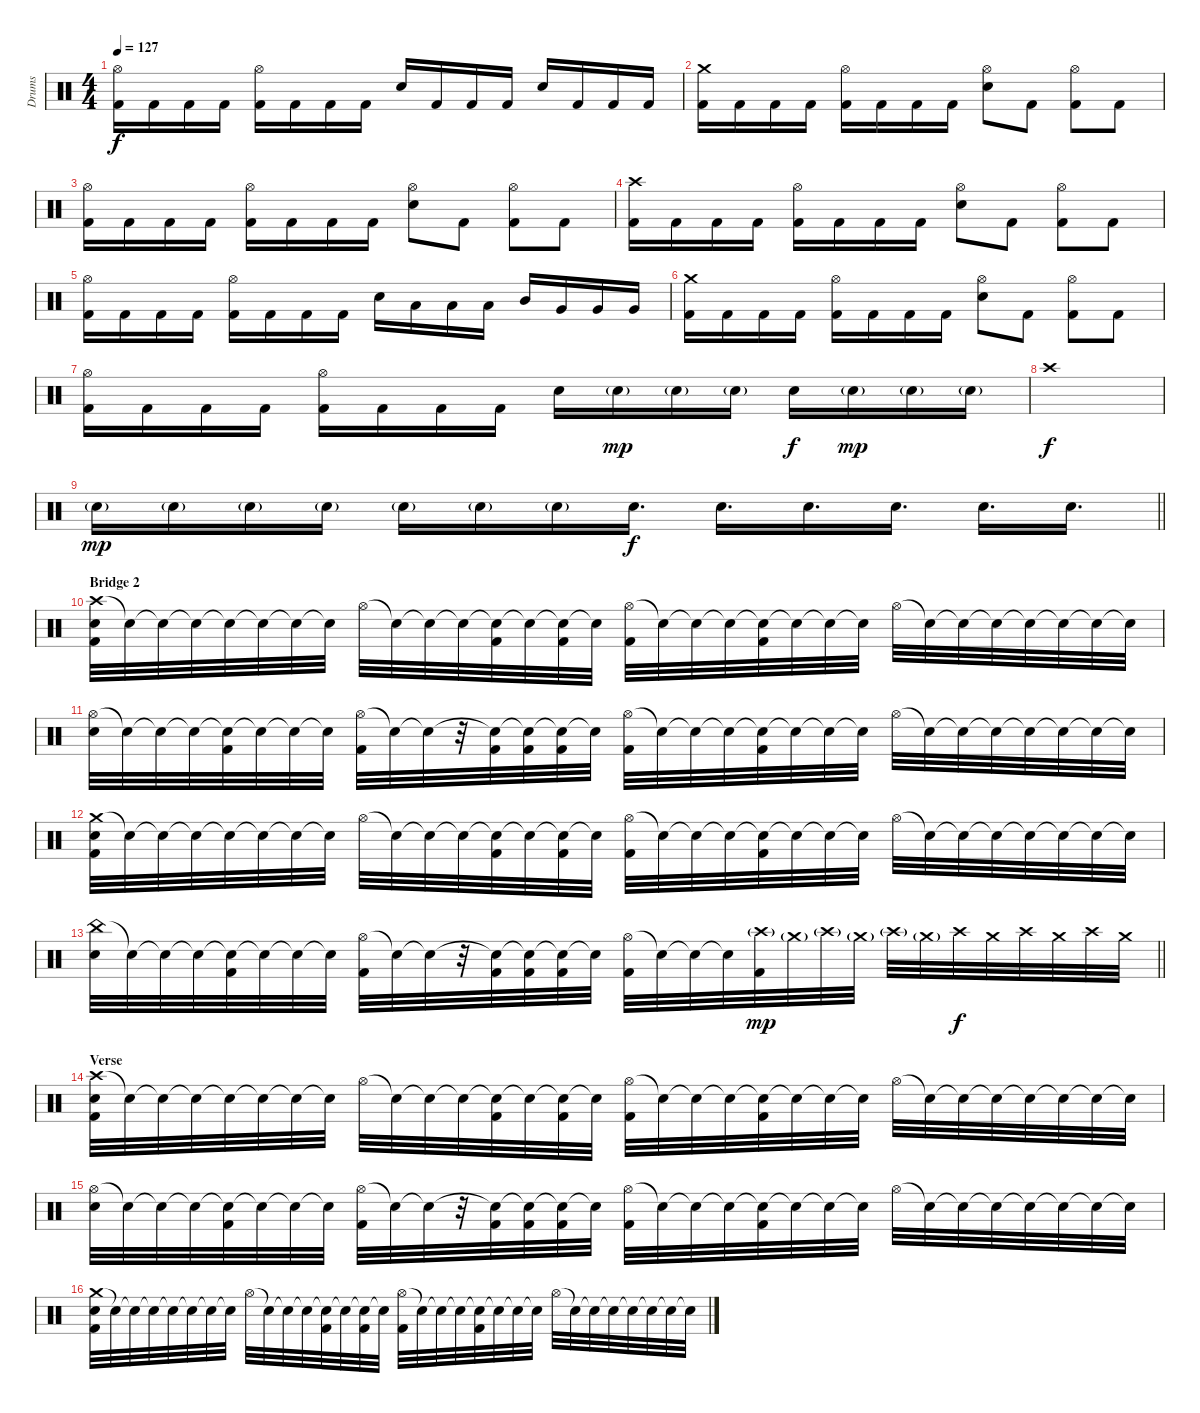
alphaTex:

\track ("Drums" "Drums") {instrument percussion}
\staff {score}
\articulation defaults
\ts (4 4)
\tempo 127
\clef neutral
\ks c
("Hi-Hat (open)" "Kick (hit) 2").16{dy f} "Kick (hit) 2".16 "Kick (hit) 2".16 "Kick (hit) 2".16 ("Hi-Hat (open)" "Kick (hit) 2").16 "Kick (hit) 2".16 "Kick (hit) 2".16 "Kick (hit) 2".16 "Snare (hit) 2".16 "Kick (hit) 2".16 "Kick (hit) 2".16 "Kick (hit) 2".16 "Snare (hit) 2".16 "Kick (hit) 2".16 "Kick (hit) 2".16 "Kick (hit) 2".16 |
("Crash medium (hit)" "Kick (hit) 2").16 "Kick (hit) 2".16 "Kick (hit) 2".16 "Kick (hit) 2".16 ("Hi-Hat (open)" "Kick (hit) 2").16 "Kick (hit) 2".16 "Kick (hit) 2".16 "Kick (hit) 2".16 ("Hi-Hat (open)" "Snare (hit) 2").8 "Kick (hit) 2".8 ("Hi-Hat (open)" "Kick (hit) 2").8 "Kick (hit) 2".8 |
("Hi-Hat (open)" "Kick (hit) 2").16 "Kick (hit) 2".16 "Kick (hit) 2".16 "Kick (hit) 2".16 ("Hi-Hat (open)" "Kick (hit) 2").16 "Kick (hit) 2".16 "Kick (hit) 2".16 "Kick (hit) 2".16 ("Hi-Hat (open)" "Snare (hit) 2").8 "Kick (hit) 2".8 ("Hi-Hat (open)" "Kick (hit) 2").8 "Kick (hit) 2".8 |
("Crash high (hit)" "Kick (hit) 2").16 "Kick (hit) 2".16 "Kick (hit) 2".16 "Kick (hit) 2".16 ("Hi-Hat (open)" "Kick (hit) 2").16 "Kick (hit) 2".16 "Kick (hit) 2".16 "Kick (hit) 2".16 ("Hi-Hat (open)" "Snare (hit) 2").8 "Kick (hit) 2".8 ("Hi-Hat (open)" "Kick (hit) 2").8 "Kick (hit) 2".8 |
("Hi-Hat (open)" "Kick (hit) 2").16 "Kick (hit) 2".16 "Kick (hit) 2".16 "Kick (hit) 2".16 ("Hi-Hat (open)" "Kick (hit) 2").16 "Kick (hit) 2".16 "Kick (hit) 2".16 "Kick (hit) 2".16 "Snare (hit) 2".16 "Low Tom (hit)".16 "Low Tom (hit)".16 "Low Tom (hit)".16 "Mid Tom (hit)".16 "Very Low Tom (hit)".16 "Very Low Tom (hit)".16 "Very Low Tom (hit)".16 |
("Crash medium (hit)" "Kick (hit) 2").16 "Kick (hit) 2".16 "Kick (hit) 2".16 "Kick (hit) 2".16 ("Hi-Hat (open)" "Kick (hit) 2").16 "Kick (hit) 2".16 "Kick (hit) 2".16 "Kick (hit) 2".16 ("Hi-Hat (open)" "Snare (hit) 2").8 "Kick (hit) 2".8 ("Hi-Hat (open)" "Kick (hit) 2").8 "Kick (hit) 2".8 |
("Hi-Hat (open)" "Kick (hit) 2").16 "Kick (hit) 2".16 "Kick (hit) 2".16 "Kick (hit) 2".16 ("Hi-Hat (open)" "Kick (hit) 2").16 "Kick (hit) 2".16 "Kick (hit) 2".16 "Kick (hit) 2".16 "Snare (hit) 2".16 "Snare (hit) 2"{g}.16{dy mp} "Snare (hit) 2"{g}.16 "Snare (hit) 2"{g}.16 "Snare (hit) 2".16{dy f} "Snare (hit) 2"{g}.16{dy mp} "Snare (hit) 2"{g}.16 "Snare (hit) 2"{g}.16 |
"Crash high (hit)".1{dy f} |
\barLineRight lightlight "Snare (hit) 2"{g}.16{dy mp} "Snare (hit) 2"{g}.16 "Snare (hit) 2"{g}.16 "Snare (hit) 2"{g}.16 "Snare (hit) 2"{g}.16 "Snare (hit) 2"{g}.16 "Snare (hit) 2"{g}.16 "Snare (hit) 2".16{d dy f} "Snare (hit) 2".16{d} "Snare (hit) 2".16{d} "Snare (hit) 2".16{d} "Snare (hit) 2".16{d} "Snare (hit) 2".16{d}
|
\section ("" "Bridge 2")
("Crash high (hit)" "Snare (hit) 2" "Kick (hit) 2").32 "Snare (hit)"{t}.32 "Snare (hit)"{t}.32 "Snare (hit)"{t}.32 "Snare (hit)"{t}.32 "Snare (hit)"{t}.32 "Snare (hit)"{t}.32 "Snare (hit)"{t}.32 "Hi-Hat (open)".32 "Snare (hit)"{t}.32 "Snare (hit)"{t}.32 "Snare (hit)"{t}.32 ("Snare (hit)"{t} "Kick (hit) 2").32 "Snare (hit)"{t}.32 ("Snare (hit)"{t} "Kick (hit) 2").32 "Snare (hit)"{t}.32 ("Hi-Hat (open)" "Kick (hit) 2").32 "Snare (hit)"{t}.32 "Snare (hit)"{t}.32 "Snare (hit)"{t}.32 ("Snare (hit)"{t} "Kick (hit) 2").32 "Snare (hit)"{t}.32 "Snare (hit)"{t}.32 "Snare (hit)"{t}.32 "Hi-Hat (open)".32 "Snare (hit)"{t}.32 "Snare (hit)"{t}.32 "Snare (hit)"{t}.32 "Snare (hit)"{t}.32 "Snare (hit)"{t}.32 "Snare (hit)"{t}.32 "Snare (hit)"{t}.32 |
("Hi-Hat (open)" "Snare (hit) 2").32 "Snare (hit)"{t}.32 "Snare (hit)"{t}.32 "Snare (hit)"{t}.32 ("Snare (hit)"{t} "Kick (hit) 2").32 "Snare (hit)"{t}.32 "Snare (hit)"{t}.32 "Snare (hit)"{t}.32 ("Hi-Hat (open)" "Kick (hit) 2").32 "Snare (hit)"{t}.32 "Snare (hit)"{t}.32 r.32 ("Snare (hit)"{t} "Kick (hit) 2").32 ("Snare (hit)"{t} "Kick (hit) 2").32 ("Snare (hit)"{t} "Kick (hit) 2").32 "Snare (hit)"{t}.32 ("Hi-Hat (open)" "Kick (hit) 2").32 "Snare (hit)"{t}.32 "Snare (hit)"{t}.32 "Snare (hit)"{t}.32 ("Snare (hit)"{t} "Kick (hit) 2").32 "Snare (hit)"{t}.32 "Snare (hit)"{t}.32 "Snare (hit)"{t}.32 "Hi-Hat (open)".32 "Snare (hit)"{t}.32 "Snare (hit)"{t}.32 "Snare (hit)"{t}.32 "Snare (hit)"{t}.32 "Snare (hit)"{t}.32 "Snare (hit)"{t}.32 "Snare (hit)"{t}.32 |
("Crash medium (hit)" "Snare (hit) 2" "Kick (hit) 2").32 "Snare (hit)"{t}.32 "Snare (hit)"{t}.32 "Snare (hit)"{t}.32 "Snare (hit)"{t}.32 "Snare (hit)"{t}.32 "Snare (hit)"{t}.32 "Snare (hit)"{t}.32 "Hi-Hat (open)".32 "Snare (hit)"{t}.32 "Snare (hit)"{t}.32 "Snare (hit)"{t}.32 ("Snare (hit)"{t} "Kick (hit) 2").32 "Snare (hit)"{t}.32 ("Snare (hit)"{t} "Kick (hit) 2").32 "Snare (hit)"{t}.32 ("Hi-Hat (open)" "Kick (hit) 2").32 "Snare (hit)"{t}.32 "Snare (hit)"{t}.32 "Snare (hit)"{t}.32 ("Snare (hit)"{t} "Kick (hit) 2").32 "Snare (hit)"{t}.32 "Snare (hit)"{t}.32 "Snare (hit)"{t}.32 "Hi-Hat (open)".32 "Snare (hit)"{t}.32 "Snare (hit)"{t}.32 "Snare (hit)"{t}.32 "Snare (hit)"{t}.32 "Snare (hit)"{t}.32 "Snare (hit)"{t}.32 "Snare (hit)"{t}.32 |
\barLineRight lightlight
("China (hit)" "Snare (hit) 2").32 "Snare (hit)"{t}.32 "Snare (hit)"{t}.32 "Snare (hit)"{t}.32 ("Snare (hit)"{t} "Kick (hit) 2").32 "Snare (hit)"{t}.32 "Snare (hit)"{t}.32 "Snare (hit)"{t}.32 ("Hi-Hat (open)" "Kick (hit) 2").32 "Snare (hit)"{t}.32 "Snare (hit)"{t}.32 r.32 ("Snare (hit)"{t} "Kick (hit) 2").32 ("Snare (hit)"{t} "Kick (hit) 2").32 ("Snare (hit)"{t} "Kick (hit) 2").32 "Snare (hit)"{t}.32 ("Hi-Hat (open)" "Kick (hit) 2").32 "Snare (hit)"{t}.32 "Snare (hit)"{t}.32 "Snare (hit)"{t}.32 ("Crash high (hit)"{g} "Kick (hit) 2").32{dy mp} "Crash medium (hit)"{g}.32 "Crash high (hit)"{g}.32 "Crash medium (hit)"{g}.32 "Crash high (hit)"{g}.32 "Crash medium (hit)"{g}.32 "Crash high (hit)".32{dy f} "Crash medium (hit)".32 "Crash high (hit)".32 "Crash medium (hit)".32 "Crash high (hit)".32 "Crash medium (hit)".32 |
\section ("" "Verse")
("Crash high (hit)" "Snare (hit) 2" "Kick (hit) 2").32 "Snare (hit)"{t}.32 "Snare (hit)"{t}.32 "Snare (hit)"{t}.32 "Snare (hit)"{t}.32 "Snare (hit)"{t}.32 "Snare (hit)"{t}.32 "Snare (hit)"{t}.32 "Hi-Hat (open)".32 "Snare (hit)"{t}.32 "Snare (hit)"{t}.32 "Snare (hit)"{t}.32 ("Snare (hit)"{t} "Kick (hit) 2").32 "Snare (hit)"{t}.32 ("Snare (hit)"{t} "Kick (hit) 2").32 "Snare (hit)"{t}.32 ("Hi-Hat (open)" "Kick (hit) 2").32 "Snare (hit)"{t}.32 "Snare (hit)"{t}.32 "Snare (hit)"{t}.32 ("Snare (hit)"{t} "Kick (hit) 2").32 "Snare (hit)"{t}.32 "Snare (hit)"{t}.32 "Snare (hit)"{t}.32 "Hi-Hat (open)".32 "Snare (hit)"{t}.32 "Snare (hit)"{t}.32 "Snare (hit)"{t}.32 "Snare (hit)"{t}.32 "Snare (hit)"{t}.32 "Snare (hit)"{t}.32 "Snare (hit)"{t}.32 |
("Hi-Hat (open)" "Snare (hit) 2").32 "Snare (hit)"{t}.32 "Snare (hit)"{t}.32 "Snare (hit)"{t}.32 ("Snare (hit)"{t} "Kick (hit) 2").32 "Snare (hit)"{t}.32 "Snare (hit)"{t}.32 "Snare (hit)"{t}.32 ("Hi-Hat (open)" "Kick (hit) 2").32 "Snare (hit)"{t}.32 "Snare (hit)"{t}.32 r.32 ("Snare (hit)"{t} "Kick (hit) 2").32 ("Snare (hit)"{t} "Kick (hit) 2").32 ("Snare (hit)"{t} "Kick (hit) 2").32 "Snare (hit)"{t}.32 ("Hi-Hat (open)" "Kick (hit) 2").32 "Snare (hit)"{t}.32 "Snare (hit)"{t}.32 "Snare (hit)"{t}.32 ("Snare (hit)"{t} "Kick (hit) 2").32 "Snare (hit)"{t}.32 "Snare (hit)"{t}.32 "Snare (hit)"{t}.32 "Hi-Hat (open)".32 "Snare (hit)"{t}.32 "Snare (hit)"{t}.32 "Snare (hit)"{t}.32 "Snare (hit)"{t}.32 "Snare (hit)"{t}.32 "Snare (hit)"{t}.32 "Snare (hit)"{t}.32 |
("Crash medium (hit)" "Snare (hit) 2" "Kick (hit) 2").32 "Snare (hit)"{t}.32 "Snare (hit)"{t}.32 "Snare (hit)"{t}.32 "Snare (hit)"{t}.32 "Snare (hit)"{t}.32 "Snare (hit)"{t}.32 "Snare (hit)"{t}.32 "Hi-Hat (open)".32 "Snare (hit)"{t}.32 "Snare (hit)"{t}.32 "Snare (hit)"{t}.32 ("Snare (hit)"{t} "Kick (hit) 2").32 "Snare (hit)"{t}.32 ("Snare (hit)"{t} "Kick (hit) 2").32 "Snare (hit)"{t}.32 ("Hi-Hat (open)" "Kick (hit) 2").32 "Snare (hit)"{t}.32 "Snare (hit)"{t}.32 "Snare (hit)"{t}.32 ("Snare (hit)"{t} "Kick (hit) 2").32 "Snare (hit)"{t}.32 "Snare (hit)"{t}.32 "Snare (hit)"{t}.32 "Hi-Hat (open)".32 "Snare (hit)"{t}.32 "Snare (hit)"{t}.32 "Snare (hit)"{t}.32 "Snare (hit)"{t}.32 "Snare (hit)"{t}.32 "Snare (hit)"{t}.32 "Snare (hit)"{t}.32
